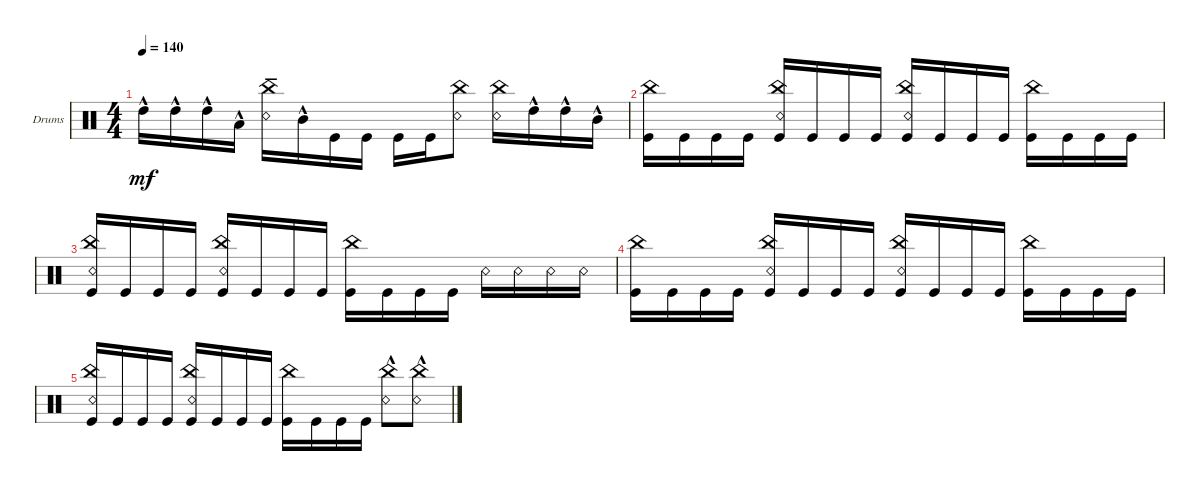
\defaultSystemsLayout 4
\bracketExtendMode groupsimilarinstruments
\firstSystemTrackNameOrientation horizontal
\otherSystemsTrackNameOrientation horizontal
\track ("Drumkit" "Drums") {instrument percussion}
\staff {score}
\articulation defaults
\ts (4 4)
\tempo 140
\clef neutral
\ks c "High Tom (hit)"{hac}.16{dy mf} "High Tom (hit)"{hac}.16 "High Tom (hit)"{hac}.16 "Low Tom (hit)"{hac}.16
("Snare (rim shot)"{ten} "China (hit)"{ten}).16 "Mid Tom (hit)"{hac}.16 "Kick (hit)".16 "Kick (hit)".16 "Kick (hit)".16 "Kick (hit)".16 ("Snare (rim shot)" "China (hit)").8 ("Snare (rim shot)" "China (hit)").16 "High Tom (hit)"{hac}.16 "High Tom (hit)"{hac}.16 "Mid Tom (hit)"{hac}.16 |
("China (hit)" "Kick (hit)").16 "Kick (hit)".16 "Kick (hit)".16 "Kick (hit)".16 ("Snare (rim shot)" "China (hit)" "Kick (hit)").16 "Kick (hit)".16 "Kick (hit)".16 "Kick (hit)".16 ("Snare (rim shot)" "China (hit)" "Kick (hit)").16 "Kick (hit)".16 "Kick (hit)".16 "Kick (hit)".16 ("Kick (hit)" "China (hit)").16 "Kick (hit)".16 "Kick (hit)".16 "Kick (hit)".16 |
("Snare (rim shot)" "China (hit)" "Kick (hit)").16 "Kick (hit)".16 "Kick (hit)".16 "Kick (hit)".16 ("Snare (rim shot)" "China (hit)" "Kick (hit)").16 "Kick (hit)".16 "Kick (hit)".16 "Kick (hit)".16 ("Kick (hit)" "China (hit)").16 "Kick (hit)".16 "Kick (hit)".16 "Kick (hit)".16 "Snare (rim shot)".16 "Snare (rim shot)".16 "Snare (rim shot)".16 "Snare (rim shot)".16 |
("China (hit)" "Kick (hit)").16 "Kick (hit)".16 "Kick (hit)".16 "Kick (hit)".16 ("Snare (rim shot)" "China (hit)" "Kick (hit)").16 "Kick (hit)".16 "Kick (hit)".16 "Kick (hit)".16 ("Snare (rim shot)" "China (hit)" "Kick (hit)").16 "Kick (hit)".16 "Kick (hit)".16 "Kick (hit)".16 ("Kick (hit)" "China (hit)").16 "Kick (hit)".16 "Kick (hit)".16 "Kick (hit)".16 |
("Snare (rim shot)" "China (hit)" "Kick (hit)").16 "Kick (hit)".16 "Kick (hit)".16 "Kick (hit)".16 ("Snare (rim shot)" "China (hit)" "Kick (hit)").16 "Kick (hit)".16 "Kick (hit)".16 "Kick (hit)".16 ("Kick (hit)" "China (hit)").16 "Kick (hit)".16 "Kick (hit)".16 "Kick (hit)".16 ("Snare (rim shot)"{hac} "China (hit)").8 ("Snare (rim shot)"{hac} "China (hit)").8
